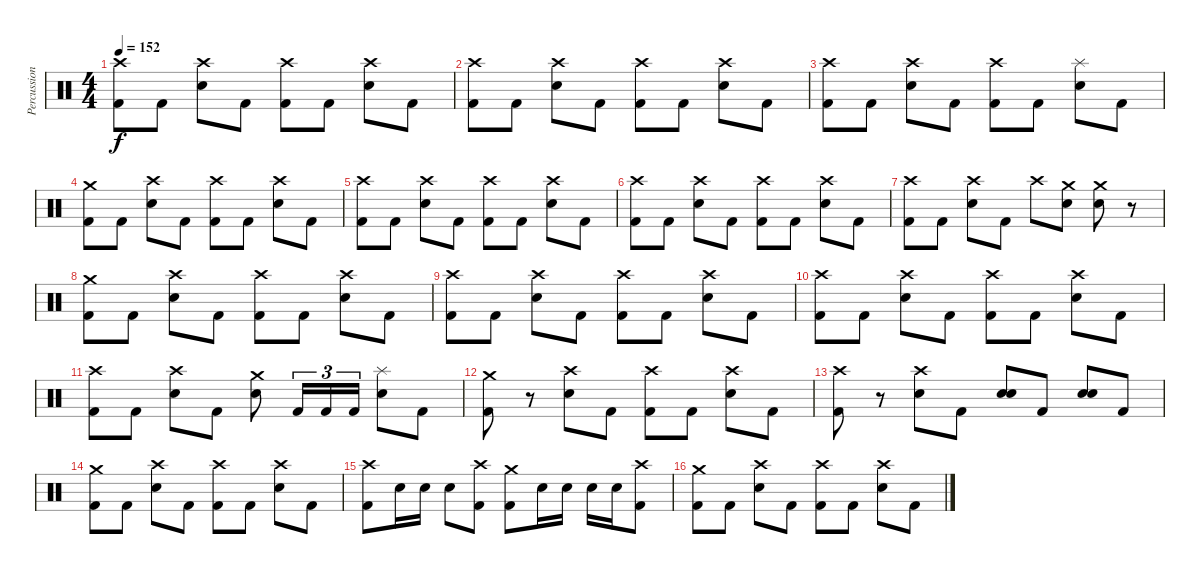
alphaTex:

\track ("Percussion" "Percussion") {instrument percussion}
\staff {score}
\articulation defaults
\ts (4 4)
\tempo 152
\clef neutral
\ks c
("Crash high (hit)" "Kick (hit) 2").8{dy f} "Kick (hit) 2".8 ("Crash high (hit)" "Snare (hit) 2").8 "Kick (hit) 2".8 ("Crash high (hit)" "Kick (hit) 2").8 "Kick (hit) 2".8 ("Crash high (hit)" "Snare (hit) 2").8 "Kick (hit) 2".8 |
("Crash high (hit)" "Kick (hit) 2").8 "Kick (hit) 2".8 ("Crash high (hit)" "Snare (hit) 2").8 "Kick (hit) 2".8 ("Crash high (hit)" "Kick (hit) 2").8 "Kick (hit) 2".8 ("Crash high (hit)" "Snare (hit) 2").8 "Kick (hit) 2".8 |
("Crash high (hit)" "Kick (hit) 2").8 "Kick (hit) 2".8 ("Crash high (hit)" "Snare (hit) 2").8 "Kick (hit) 2".8 ("Crash high (hit)" "Kick (hit) 2").8 "Kick (hit) 2".8 ("Splash (hit)" "Snare (hit) 2").8 "Kick (hit) 2".8 |
("Crash medium (hit)" "Kick (hit) 2").8 "Kick (hit) 2".8 ("Crash high (hit)" "Snare (hit) 2").8 "Kick (hit) 2".8 ("Crash high (hit)" "Kick (hit) 2").8 "Kick (hit) 2".8 ("Crash high (hit)" "Snare (hit) 2").8 "Kick (hit) 2".8 |
("Crash high (hit)" "Kick (hit) 2").8 "Kick (hit) 2".8 ("Crash high (hit)" "Snare (hit) 2").8 "Kick (hit) 2".8 ("Crash high (hit)" "Kick (hit) 2").8 "Kick (hit) 2".8 ("Crash high (hit)" "Snare (hit) 2").8 "Kick (hit) 2".8 |
("Crash high (hit)" "Kick (hit) 2").8 "Kick (hit) 2".8 ("Crash high (hit)" "Snare (hit) 2").8 "Kick (hit) 2".8 ("Crash high (hit)" "Kick (hit) 2").8 "Kick (hit) 2".8 ("Crash high (hit)" "Snare (hit) 2").8 "Kick (hit) 2".8 |
("Crash high (hit)" "Kick (hit) 2").8 "Kick (hit) 2".8 ("Crash high (hit)" "Snare (hit) 2").8 "Kick (hit) 2".8 "Crash high (hit)".8 ("Crash medium (hit)" "Snare (hit) 2").8 ("Crash medium (hit)" "Snare (hit) 2").8 r.8 |
("Crash medium (hit)" "Kick (hit) 2").8 "Kick (hit) 2".8 ("Crash high (hit)" "Snare (hit) 2").8 "Kick (hit) 2".8 ("Crash high (hit)" "Kick (hit) 2").8 "Kick (hit) 2".8 ("Crash high (hit)" "Snare (hit) 2").8 "Kick (hit) 2".8 |
("Crash high (hit)" "Kick (hit) 2").8 "Kick (hit) 2".8 ("Crash high (hit)" "Snare (hit) 2").8 "Kick (hit) 2".8 ("Crash high (hit)" "Kick (hit) 2").8 "Kick (hit) 2".8 ("Crash high (hit)" "Snare (hit) 2").8 "Kick (hit) 2".8 |
("Crash high (hit)" "Kick (hit) 2").8 "Kick (hit) 2".8 ("Crash high (hit)" "Snare (hit) 2").8 "Kick (hit) 2".8 ("Crash high (hit)" "Kick (hit) 2").8 "Kick (hit) 2".8 ("Crash high (hit)" "Snare (hit) 2").8 "Kick (hit) 2".8 |
("Crash high (hit)" "Kick (hit) 2").8 "Kick (hit) 2".8 ("Crash high (hit)" "Snare (hit) 2").8 "Kick (hit) 2".8 ("Crash medium (hit)" "Snare (hit) 2").8 "Kick (hit) 2".16{tu (3 2)} "Kick (hit) 2".16{tu (3 2)} "Kick (hit) 2".16{tu (3 2)} ("Splash (hit)" "Snare (hit) 2").8 "Kick (hit) 2".8 |
("Crash medium (hit)" "Kick (hit) 2").8 r.8 ("Crash high (hit)" "Snare (hit) 2").8 "Kick (hit) 2".8 ("Crash high (hit)" "Kick (hit) 2").8 "Kick (hit) 2".8 ("Crash high (hit)" "Snare (hit) 2").8 "Kick (hit) 2".8 |
("Crash high (hit)" "Kick (hit) 2").8 r.8 ("Crash high (hit)" "Snare (hit) 2").8 "Kick (hit) 2".8 ("Snare (hit) 2" "Snare (hit) 2").8 "Kick (hit) 2".8 ("Snare (hit) 2" "Snare (hit) 2").8 "Kick (hit) 2".8 |
("Crash medium (hit)" "Kick (hit) 2").8 "Kick (hit) 2".8 ("Crash high (hit)" "Snare (hit) 2").8 "Kick (hit) 2".8 ("Crash high (hit)" "Kick (hit) 2").8 "Kick (hit) 2".8 ("Crash high (hit)" "Snare (hit) 2").8 "Kick (hit) 2".8 |
("Crash high (hit)" "Kick (hit) 2").8 "Snare (hit) 2".16 "Snare (hit) 2".16 "Snare (hit) 2".8 ("Crash high (hit)" "Kick (hit) 2").8 ("Crash medium (hit)" "Kick (hit) 2").8 "Snare (hit) 2".16 "Snare (hit) 2".16 "Snare (hit) 2".16 "Snare (hit) 2".16 ("Crash high (hit)" "Kick (hit) 2").8 |
("Crash medium (hit)" "Kick (hit) 2").8 "Kick (hit) 2".8 ("Crash high (hit)" "Snare (hit) 2").8 "Kick (hit) 2".8 ("Crash high (hit)" "Kick (hit) 2").8 "Kick (hit) 2".8 ("Crash high (hit)" "Snare (hit) 2").8 "Kick (hit) 2".8
